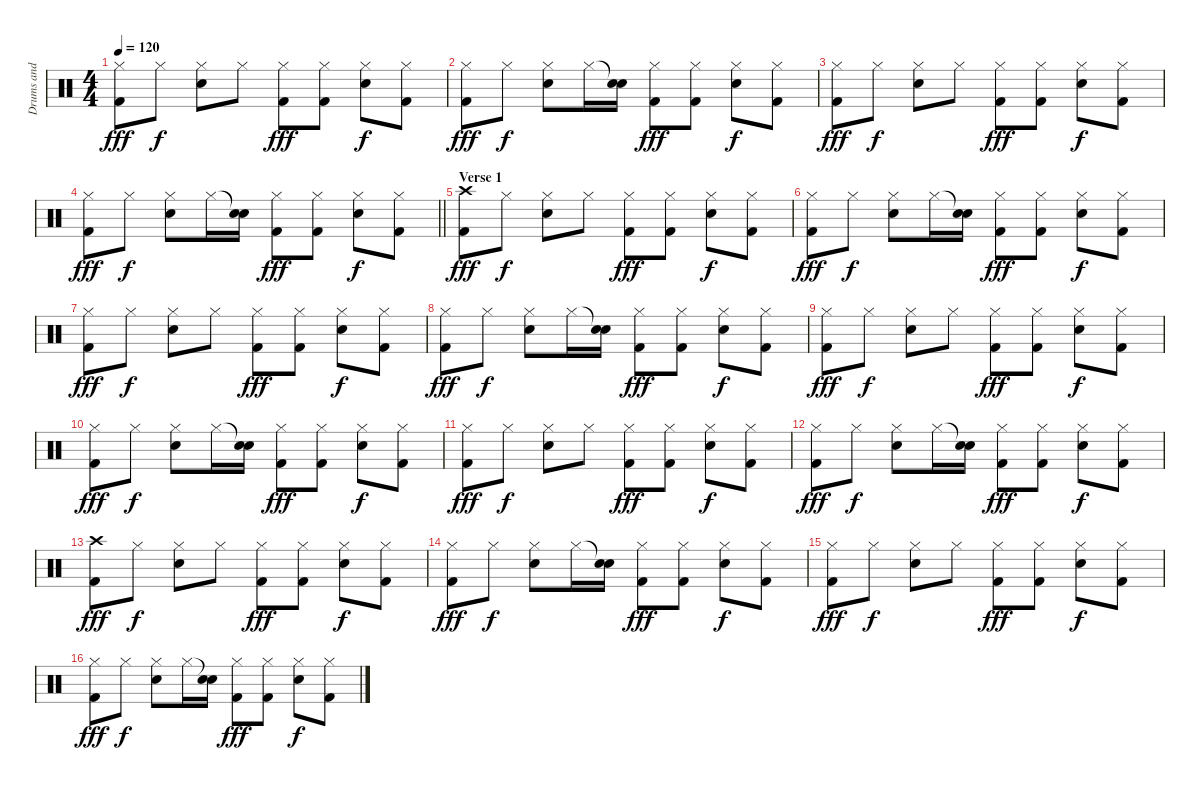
\track ("Drums and Percussion" "Drums and ") {instrument percussion}
\staff {score}
\articulation defaults
\ts (4 4)
\tempo 120
\clef neutral
\ks c
("Hi-Hat (closed)" "Kick (hit) 2").8{dy fff} "Hi-Hat (closed)".8{dy f} ("Hi-Hat (closed)" "Snare (hit) 2").8 "Hi-Hat (closed)".8 ("Hi-Hat (closed)" "Kick (hit) 2").8{dy fff} ("Hi-Hat (closed)" "Kick (hit) 2").8 ("Hi-Hat (closed)" "Snare (hit) 2").8{dy f} ("Hi-Hat (closed)" "Kick (hit) 2").8 |
("Hi-Hat (closed)" "Kick (hit) 2").8{dy fff} "Hi-Hat (closed)".8{dy f} ("Hi-Hat (closed)" "Snare (hit) 2").8 "Hi-Hat (closed)".16 ("Snare (hit)"{t} "Snare (hit) 2").16 ("Hi-Hat (closed)" "Kick (hit) 2").8{dy fff} ("Hi-Hat (closed)" "Kick (hit) 2").8 ("Hi-Hat (closed)" "Snare (hit) 2").8{dy f} ("Hi-Hat (closed)" "Kick (hit) 2").8 |
("Hi-Hat (closed)" "Kick (hit) 2").8{dy fff} "Hi-Hat (closed)".8{dy f} ("Hi-Hat (closed)" "Snare (hit) 2").8 "Hi-Hat (closed)".8 ("Hi-Hat (closed)" "Kick (hit) 2").8{dy fff} ("Hi-Hat (closed)" "Kick (hit) 2").8 ("Hi-Hat (closed)" "Snare (hit) 2").8{dy f} ("Hi-Hat (closed)" "Kick (hit) 2").8 |
\barLineRight lightlight
("Hi-Hat (closed)" "Kick (hit) 2").8{dy fff} "Hi-Hat (closed)".8{dy f} ("Hi-Hat (closed)" "Snare (hit) 2").8 "Hi-Hat (closed)".16 ("Snare (hit)"{t} "Snare (hit) 2").16 ("Hi-Hat (closed)" "Kick (hit) 2").8{dy fff} ("Hi-Hat (closed)" "Kick (hit) 2").8 ("Hi-Hat (closed)" "Snare (hit) 2").8{dy f} ("Hi-Hat (closed)" "Kick (hit) 2").8 |
\section ("" "Verse 1")
("Crash high (hit)" "Kick (hit) 2").8{dy fff} "Hi-Hat (closed)".8{dy f} ("Hi-Hat (closed)" "Snare (hit) 2").8 "Hi-Hat (closed)".8 ("Hi-Hat (closed)" "Kick (hit) 2").8{dy fff} ("Hi-Hat (closed)" "Kick (hit) 2").8 ("Hi-Hat (closed)" "Snare (hit) 2").8{dy f} ("Hi-Hat (closed)" "Kick (hit) 2").8 |
("Hi-Hat (closed)" "Kick (hit) 2").8{dy fff} "Hi-Hat (closed)".8{dy f} ("Hi-Hat (closed)" "Snare (hit) 2").8 "Hi-Hat (closed)".16 ("Snare (hit)"{t} "Snare (hit) 2").16 ("Hi-Hat (closed)" "Kick (hit) 2").8{dy fff} ("Hi-Hat (closed)" "Kick (hit) 2").8 ("Hi-Hat (closed)" "Snare (hit) 2").8{dy f} ("Hi-Hat (closed)" "Kick (hit) 2").8 |
("Hi-Hat (closed)" "Kick (hit) 2").8{dy fff} "Hi-Hat (closed)".8{dy f} ("Hi-Hat (closed)" "Snare (hit) 2").8 "Hi-Hat (closed)".8 ("Hi-Hat (closed)" "Kick (hit) 2").8{dy fff} ("Hi-Hat (closed)" "Kick (hit) 2").8 ("Hi-Hat (closed)" "Snare (hit) 2").8{dy f} ("Hi-Hat (closed)" "Kick (hit) 2").8 |
("Hi-Hat (closed)" "Kick (hit) 2").8{dy fff} "Hi-Hat (closed)".8{dy f} ("Hi-Hat (closed)" "Snare (hit) 2").8 "Hi-Hat (closed)".16 ("Snare (hit)"{t} "Snare (hit) 2").16 ("Hi-Hat (closed)" "Kick (hit) 2").8{dy fff} ("Hi-Hat (closed)" "Kick (hit) 2").8 ("Hi-Hat (closed)" "Snare (hit) 2").8{dy f} ("Hi-Hat (closed)" "Kick (hit) 2").8 |
("Hi-Hat (closed)" "Kick (hit) 2").8{dy fff} "Hi-Hat (closed)".8{dy f} ("Hi-Hat (closed)" "Snare (hit) 2").8 "Hi-Hat (closed)".8 ("Hi-Hat (closed)" "Kick (hit) 2").8{dy fff} ("Hi-Hat (closed)" "Kick (hit) 2").8 ("Hi-Hat (closed)" "Snare (hit) 2").8{dy f} ("Hi-Hat (closed)" "Kick (hit) 2").8 |
("Hi-Hat (closed)" "Kick (hit) 2").8{dy fff} "Hi-Hat (closed)".8{dy f} ("Hi-Hat (closed)" "Snare (hit) 2").8 "Hi-Hat (closed)".16 ("Snare (hit)"{t} "Snare (hit) 2").16 ("Hi-Hat (closed)" "Kick (hit) 2").8{dy fff} ("Hi-Hat (closed)" "Kick (hit) 2").8 ("Hi-Hat (closed)" "Snare (hit) 2").8{dy f} ("Hi-Hat (closed)" "Kick (hit) 2").8 |
("Hi-Hat (closed)" "Kick (hit) 2").8{dy fff} "Hi-Hat (closed)".8{dy f} ("Hi-Hat (closed)" "Snare (hit) 2").8 "Hi-Hat (closed)".8 ("Hi-Hat (closed)" "Kick (hit) 2").8{dy fff} ("Hi-Hat (closed)" "Kick (hit) 2").8 ("Hi-Hat (closed)" "Snare (hit) 2").8{dy f} ("Hi-Hat (closed)" "Kick (hit) 2").8 |
("Hi-Hat (closed)" "Kick (hit) 2").8{dy fff} "Hi-Hat (closed)".8{dy f} ("Hi-Hat (closed)" "Snare (hit) 2").8 "Hi-Hat (closed)".16 ("Snare (hit)"{t} "Snare (hit) 2").16 ("Hi-Hat (closed)" "Kick (hit) 2").8{dy fff} ("Hi-Hat (closed)" "Kick (hit) 2").8 ("Hi-Hat (closed)" "Snare (hit) 2").8{dy f} ("Hi-Hat (closed)" "Kick (hit) 2").8 |
("Crash high (hit)" "Kick (hit) 2").8{dy fff} "Hi-Hat (closed)".8{dy f} ("Hi-Hat (closed)" "Snare (hit) 2").8 "Hi-Hat (closed)".8 ("Hi-Hat (closed)" "Kick (hit) 2").8{dy fff} ("Hi-Hat (closed)" "Kick (hit) 2").8 ("Hi-Hat (closed)" "Snare (hit) 2").8{dy f} ("Hi-Hat (closed)" "Kick (hit) 2").8 |
("Hi-Hat (closed)" "Kick (hit) 2").8{dy fff} "Hi-Hat (closed)".8{dy f} ("Hi-Hat (closed)" "Snare (hit) 2").8 "Hi-Hat (closed)".16 ("Snare (hit)"{t} "Snare (hit) 2").16 ("Hi-Hat (closed)" "Kick (hit) 2").8{dy fff} ("Hi-Hat (closed)" "Kick (hit) 2").8 ("Hi-Hat (closed)" "Snare (hit) 2").8{dy f} ("Hi-Hat (closed)" "Kick (hit) 2").8 |
("Hi-Hat (closed)" "Kick (hit) 2").8{dy fff} "Hi-Hat (closed)".8{dy f} ("Hi-Hat (closed)" "Snare (hit) 2").8 "Hi-Hat (closed)".8 ("Hi-Hat (closed)" "Kick (hit) 2").8{dy fff} ("Hi-Hat (closed)" "Kick (hit) 2").8 ("Hi-Hat (closed)" "Snare (hit) 2").8{dy f} ("Hi-Hat (closed)" "Kick (hit) 2").8 |
("Hi-Hat (closed)" "Kick (hit) 2").8{dy fff} "Hi-Hat (closed)".8{dy f} ("Hi-Hat (closed)" "Snare (hit) 2").8 "Hi-Hat (closed)".16 ("Snare (hit)"{t} "Snare (hit) 2").16 ("Hi-Hat (closed)" "Kick (hit) 2").8{dy fff} ("Hi-Hat (closed)" "Kick (hit) 2").8 ("Hi-Hat (closed)" "Snare (hit) 2").8{dy f} ("Hi-Hat (closed)" "Kick (hit) 2").8
